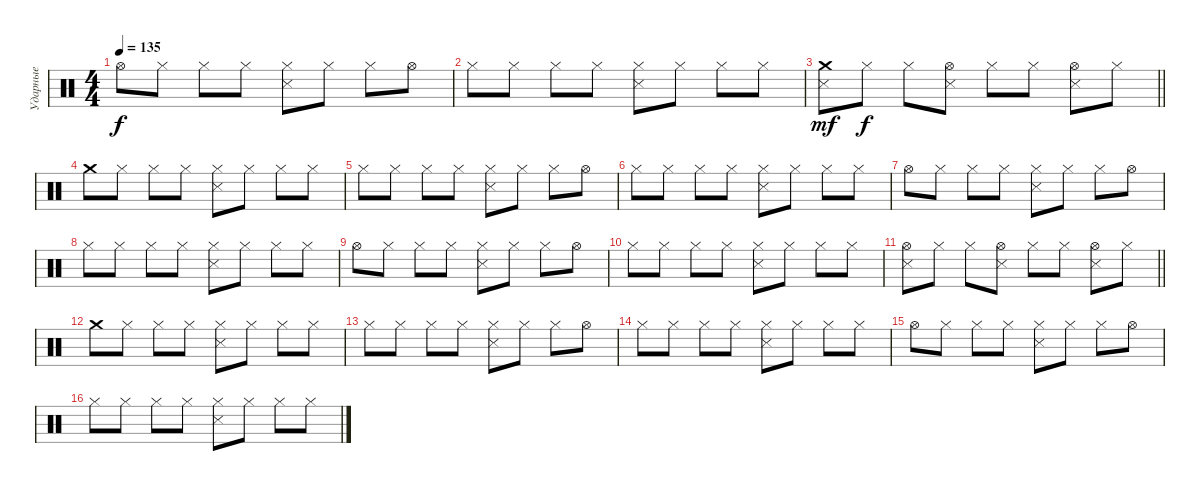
\track ("Ударные" "Ударные") {instrument percussion}
\staff {score}
\articulation defaults
\ts (4 4)
\tempo 135
\clef neutral
\ks c "Hi-Hat (open)".8{dy f} "Hi-Hat (closed)".8 "Hi-Hat (closed)".8 "Hi-Hat (closed)".8
("Hi-Hat (closed)" "Snare (side stick) 3").8 "Hi-Hat (closed)".8 "Hi-Hat (closed)".8 "Hi-Hat (open)".8 |
"Hi-Hat (closed)".8 "Hi-Hat (closed)".8 "Hi-Hat (closed)".8 "Hi-Hat (closed)".8 ("Hi-Hat (closed)" "Snare (side stick) 3").8 "Hi-Hat (closed)".8 "Hi-Hat (closed)".8 "Hi-Hat (closed)".8 |
\barLineRight lightlight
("Crash medium (hit)" "Snare (side stick) 3").8{dy mf} "Hi-Hat (closed)".8{dy f} "Hi-Hat (closed)".8 ("Hi-Hat (open)" "Snare (side stick) 3").8 "Hi-Hat (closed)".8 "Hi-Hat (closed)".8 ("Hi-Hat (open)" "Snare (side stick) 3").8 "Hi-Hat (closed)".8 |
\section ("" " ")
"Crash medium (hit)".8 "Hi-Hat (closed)".8 "Hi-Hat (closed)".8 "Hi-Hat (closed)".8 ("Hi-Hat (closed)" "Snare (side stick) 3").8 "Hi-Hat (closed)".8 "Hi-Hat (closed)".8 "Hi-Hat (closed)".8 |
"Hi-Hat (closed)".8 "Hi-Hat (closed)".8 "Hi-Hat (closed)".8 "Hi-Hat (closed)".8 ("Hi-Hat (closed)" "Snare (side stick) 3").8 "Hi-Hat (closed)".8 "Hi-Hat (closed)".8 "Hi-Hat (open)".8 |
"Hi-Hat (closed)".8 "Hi-Hat (closed)".8 "Hi-Hat (closed)".8 "Hi-Hat (closed)".8 ("Hi-Hat (closed)" "Snare (side stick) 3").8 "Hi-Hat (closed)".8 "Hi-Hat (closed)".8 "Hi-Hat (closed)".8 |
"Hi-Hat (open)".8 "Hi-Hat (closed)".8 "Hi-Hat (closed)".8 "Hi-Hat (closed)".8 ("Hi-Hat (closed)" "Snare (side stick) 3").8 "Hi-Hat (closed)".8 "Hi-Hat (closed)".8 "Hi-Hat (open)".8 |
"Hi-Hat (closed)".8 "Hi-Hat (closed)".8 "Hi-Hat (closed)".8 "Hi-Hat (closed)".8 ("Hi-Hat (closed)" "Snare (side stick) 3").8 "Hi-Hat (closed)".8 "Hi-Hat (closed)".8 "Hi-Hat (closed)".8 |
"Hi-Hat (open)".8 "Hi-Hat (closed)".8 "Hi-Hat (closed)".8 "Hi-Hat (closed)".8 ("Hi-Hat (closed)" "Snare (side stick) 3").8 "Hi-Hat (closed)".8 "Hi-Hat (closed)".8 "Hi-Hat (open)".8 |
"Hi-Hat (closed)".8 "Hi-Hat (closed)".8 "Hi-Hat (closed)".8 "Hi-Hat (closed)".8 ("Hi-Hat (closed)" "Snare (side stick) 3").8 "Hi-Hat (closed)".8 "Hi-Hat (closed)".8 "Hi-Hat (closed)".8 |
\barLineRight lightlight
("Hi-Hat (open)" "Snare (side stick) 3").8 "Hi-Hat (closed)".8 "Hi-Hat (closed)".8 ("Hi-Hat (open)" "Snare (side stick) 3").8 "Hi-Hat (closed)".8 "Hi-Hat (closed)".8 ("Hi-Hat (open)" "Snare (side stick) 3").8 "Hi-Hat (closed)".8 |
\section ("" " ")
"Crash medium (hit)".8 "Hi-Hat (closed)".8 "Hi-Hat (closed)".8 "Hi-Hat (closed)".8 ("Hi-Hat (closed)" "Snare (side stick) 3").8 "Hi-Hat (closed)".8 "Hi-Hat (closed)".8 "Hi-Hat (closed)".8 |
"Hi-Hat (closed)".8 "Hi-Hat (closed)".8 "Hi-Hat (closed)".8 "Hi-Hat (closed)".8 ("Hi-Hat (closed)" "Snare (side stick) 3").8 "Hi-Hat (closed)".8 "Hi-Hat (closed)".8 "Hi-Hat (open)".8 |
"Hi-Hat (closed)".8 "Hi-Hat (closed)".8 "Hi-Hat (closed)".8 "Hi-Hat (closed)".8 ("Hi-Hat (closed)" "Snare (side stick) 3").8 "Hi-Hat (closed)".8 "Hi-Hat (closed)".8 "Hi-Hat (closed)".8 |
"Hi-Hat (open)".8 "Hi-Hat (closed)".8 "Hi-Hat (closed)".8 "Hi-Hat (closed)".8 ("Hi-Hat (closed)" "Snare (side stick) 3").8 "Hi-Hat (closed)".8 "Hi-Hat (closed)".8 "Hi-Hat (open)".8 |
"Hi-Hat (closed)".8 "Hi-Hat (closed)".8 "Hi-Hat (closed)".8 "Hi-Hat (closed)".8 ("Hi-Hat (closed)" "Snare (side stick) 3").8 "Hi-Hat (closed)".8 "Hi-Hat (closed)".8 "Hi-Hat (closed)".8
